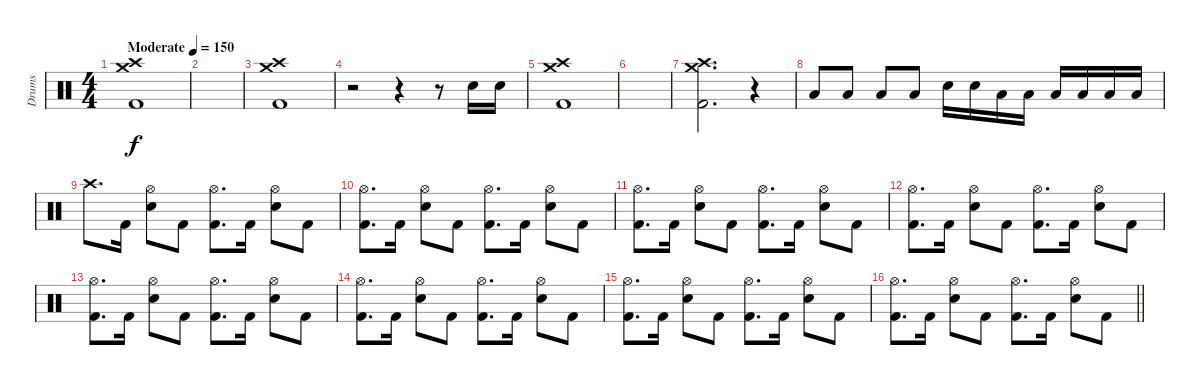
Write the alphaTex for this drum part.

\track ("Drums" "Drums") {instrument percussion}
\staff {score}
\articulation defaults
\ts (4 4)
\tempo (150 "Moderate")
\clef neutral
\ks c
("Kick (hit) 2" "Crash high (hit)" "Crash medium (hit)").1{dy f} |
|
("Kick (hit) 2" "Crash high (hit)" "Crash medium (hit)").1 |
r.2 r.4 r.8 "Snare (hit) 2".16 "Snare (hit) 2".16 |
("Kick (hit) 2" "Crash high (hit)" "Crash medium (hit)").1 |
|
("Kick (hit) 2" "Crash high (hit)" "Crash medium (hit)").2{d} r.4{volume 0} |
"Low Tom (hit)".8{volume 13} "Low Tom (hit)".8 "Low Tom (hit)".8 "Low Tom (hit)".8 "Snare (hit) 2".16 "Snare (hit) 2".16 "Low Tom (hit)".16 "Low Tom (hit)".16 "Low Tom (hit)".16 "Low Tom (hit)".16 "Low Tom (hit)".16 "Low Tom (hit)".16 |
"Crash high (hit)".8{d} "Kick (hit) 2".16 ("Snare (hit) 2" "Hi-Hat (open)").8 "Kick (hit) 2".8 ("Kick (hit) 2" "Hi-Hat (open)").8{d} "Kick (hit) 2".16 ("Snare (hit) 2" "Hi-Hat (open)").8 "Kick (hit) 2".8 |
("Kick (hit) 2" "Hi-Hat (open)").8{d} "Kick (hit) 2".16 ("Snare (hit) 2" "Hi-Hat (open)").8 "Kick (hit) 2".8 ("Kick (hit) 2" "Hi-Hat (open)").8{d} "Kick (hit) 2".16 ("Snare (hit) 2" "Hi-Hat (open)").8 "Kick (hit) 2".8 |
("Kick (hit) 2" "Hi-Hat (open)").8{d} "Kick (hit) 2".16 ("Snare (hit) 2" "Hi-Hat (open)").8 "Kick (hit) 2".8 ("Kick (hit) 2" "Hi-Hat (open)").8{d} "Kick (hit) 2".16 ("Snare (hit) 2" "Hi-Hat (open)").8 "Kick (hit) 2".8 |
("Kick (hit) 2" "Hi-Hat (open)").8{d} "Kick (hit) 2".16 ("Snare (hit) 2" "Hi-Hat (open)").8 "Kick (hit) 2".8 ("Kick (hit) 2" "Hi-Hat (open)").8{d} "Kick (hit) 2".16 ("Snare (hit) 2" "Hi-Hat (open)").8 "Kick (hit) 2".8 |
("Kick (hit) 2" "Hi-Hat (open)").8{d} "Kick (hit) 2".16 ("Snare (hit) 2" "Hi-Hat (open)").8 "Kick (hit) 2".8 ("Kick (hit) 2" "Hi-Hat (open)").8{d} "Kick (hit) 2".16 ("Snare (hit) 2" "Hi-Hat (open)").8 "Kick (hit) 2".8 |
("Kick (hit) 2" "Hi-Hat (open)").8{d} "Kick (hit) 2".16 ("Snare (hit) 2" "Hi-Hat (open)").8 "Kick (hit) 2".8 ("Kick (hit) 2" "Hi-Hat (open)").8{d} "Kick (hit) 2".16 ("Snare (hit) 2" "Hi-Hat (open)").8 "Kick (hit) 2".8 |
("Kick (hit) 2" "Hi-Hat (open)").8{d} "Kick (hit) 2".16 ("Snare (hit) 2" "Hi-Hat (open)").8 "Kick (hit) 2".8 ("Kick (hit) 2" "Hi-Hat (open)").8{d} "Kick (hit) 2".16 ("Snare (hit) 2" "Hi-Hat (open)").8 "Kick (hit) 2".8 |
\barLineRight lightlight
("Kick (hit) 2" "Hi-Hat (open)").8{d} "Kick (hit) 2".16 ("Snare (hit) 2" "Hi-Hat (open)").8 "Kick (hit) 2".8 ("Kick (hit) 2" "Hi-Hat (open)").8{d} "Kick (hit) 2".16 ("Snare (hit) 2" "Hi-Hat (open)").8 "Kick (hit) 2".8
